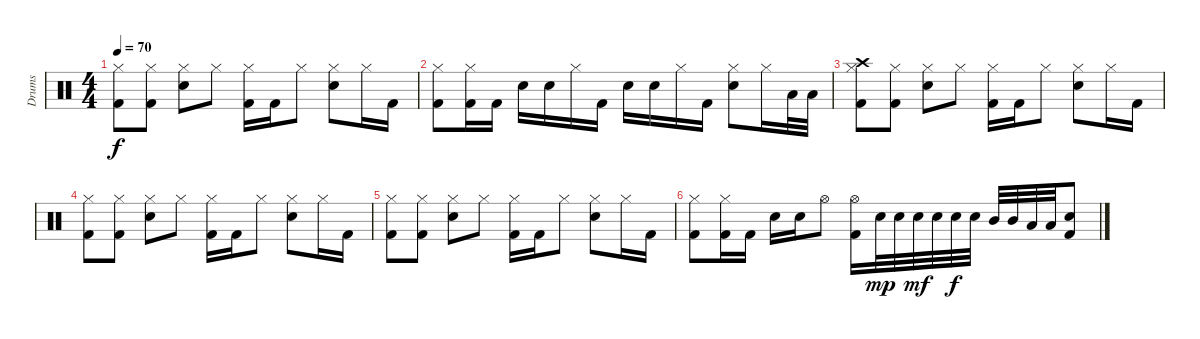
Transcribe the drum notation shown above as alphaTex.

\track ("Drums" "Drums") {instrument percussion}
\staff {score}
\articulation defaults
\ts (4 4)
\tempo 70
\clef neutral
\ks c
("Hi-Hat (closed)" "Kick (hit) 2").8{dy f} ("Hi-Hat (closed)" "Kick (hit) 2").8 ("Hi-Hat (closed)" "Electric Snare (hit)").8 "Hi-Hat (closed)".8 ("Hi-Hat (closed)" "Kick (hit) 2").16 "Kick (hit) 2".16 "Hi-Hat (closed)".8 ("Hi-Hat (closed)" "Electric Snare (hit)").8 "Hi-Hat (closed)".16 "Kick (hit) 2".16 |
("Hi-Hat (closed)" "Kick (hit) 2").8 ("Hi-Hat (closed)" "Kick (hit) 2").16 "Kick (hit) 2".16 "Electric Snare (hit)".16 "Electric Snare (hit)".16 "Hi-Hat (closed)".16 "Kick (hit) 2".16 "Electric Snare (hit)".16 "Electric Snare (hit)".16 "Hi-Hat (closed)".16 "Kick (hit) 2".16 ("Hi-Hat (closed)" "Electric Snare (hit)").8 "Hi-Hat (closed)".16 "Low Floor Tom (hit)".32 "Low Floor Tom (hit)".32 |
("Crash high (hit)" "Hi-Hat (closed)" "Kick (hit) 2").8 ("Hi-Hat (closed)" "Kick (hit) 2").8 ("Hi-Hat (closed)" "Electric Snare (hit)").8 "Hi-Hat (closed)".8 ("Hi-Hat (closed)" "Kick (hit) 2").16 "Kick (hit) 2".16 "Hi-Hat (closed)".8 ("Hi-Hat (closed)" "Electric Snare (hit)").8 "Hi-Hat (closed)".16 "Kick (hit) 2".16 |
("Hi-Hat (closed)" "Kick (hit) 2").8 ("Hi-Hat (closed)" "Kick (hit) 2").8 ("Hi-Hat (closed)" "Electric Snare (hit)").8 "Hi-Hat (closed)".8 ("Hi-Hat (closed)" "Kick (hit) 2").16 "Kick (hit) 2".16 "Hi-Hat (closed)".8 ("Hi-Hat (closed)" "Electric Snare (hit)").8 "Hi-Hat (closed)".16 "Kick (hit) 2".16 |
("Hi-Hat (closed)" "Kick (hit) 2").8 ("Hi-Hat (closed)" "Kick (hit) 2").8 ("Hi-Hat (closed)" "Electric Snare (hit)").8 "Hi-Hat (closed)".8 ("Hi-Hat (closed)" "Kick (hit) 2").16 "Kick (hit) 2".16 "Hi-Hat (closed)".8 ("Hi-Hat (closed)" "Electric Snare (hit)").8 "Hi-Hat (closed)".16 "Kick (hit) 2".16 |
("Hi-Hat (closed)" "Kick (hit) 2").8 ("Hi-Hat (closed)" "Kick (hit) 2").16 "Kick (hit) 2".16 "Electric Snare (hit)".16 "Electric Snare (hit)".16 "Hi-Hat (open)".8 ("Hi-Hat (open)" "Kick (hit) 2").16 "Electric Snare (hit)".32{dy mp} "Electric Snare (hit)".32 "Electric Snare (hit)".32{dy mf} "Electric Snare (hit)".32 "Electric Snare (hit)".32{dy f} "Electric Snare (hit)".32 "Mid Tom (hit)".32 "Mid Tom (hit)".32 "Low Tom (hit)".32 "Low Tom (hit)".32 ("Electric Snare (hit)" "Kick (hit) 2").8
